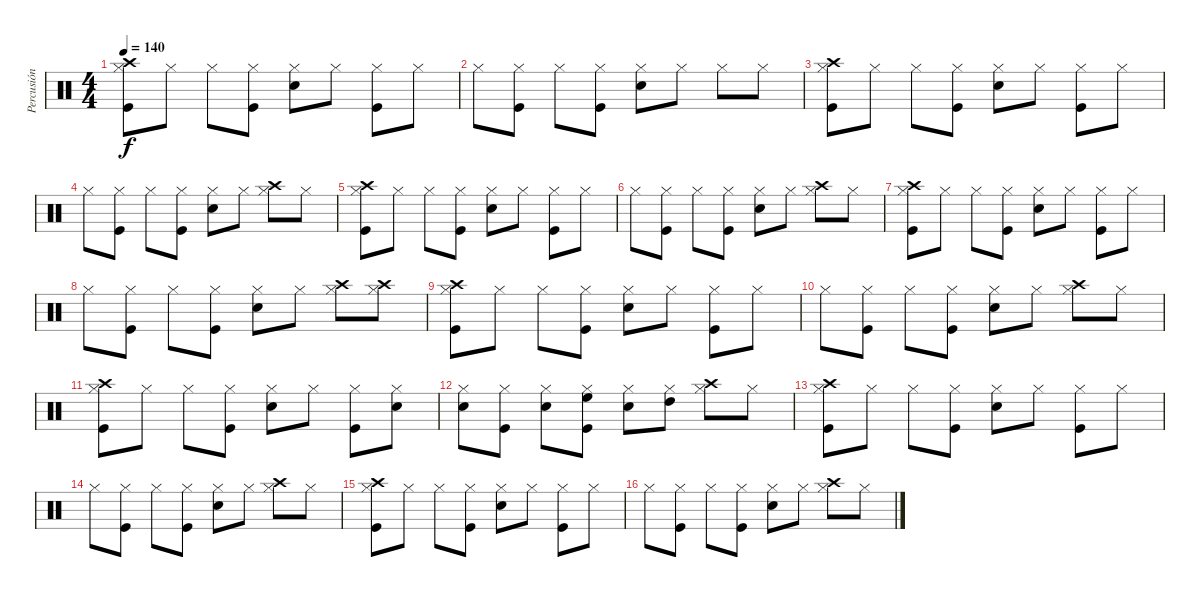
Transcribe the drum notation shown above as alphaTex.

\track ("Percusión" "Percusión") {instrument percussion}
\staff {score}
\articulation defaults
\ts (4 4)
\tempo 140
\clef neutral
\ks c
("Crash high (hit)" "Hi-Hat (closed)" "Kick (hit)").8{dy f} "Hi-Hat (closed)".8 "Hi-Hat (closed)".8 ("Hi-Hat (closed)" "Kick (hit)").8 ("Hi-Hat (closed)" "Electric Snare (hit)").8 "Hi-Hat (closed)".8 ("Hi-Hat (closed)" "Kick (hit)").8 "Hi-Hat (closed)".8 |
"Hi-Hat (closed)".8 ("Hi-Hat (closed)" "Kick (hit)").8 "Hi-Hat (closed)".8 ("Hi-Hat (closed)" "Kick (hit)").8 ("Hi-Hat (closed)" "Electric Snare (hit)").8 "Hi-Hat (closed)".8 "Hi-Hat (closed)".8 "Hi-Hat (closed)".8 |
("Crash high (hit)" "Hi-Hat (closed)" "Kick (hit)").8 "Hi-Hat (closed)".8 "Hi-Hat (closed)".8 ("Hi-Hat (closed)" "Kick (hit)").8 ("Hi-Hat (closed)" "Electric Snare (hit)").8 "Hi-Hat (closed)".8 ("Hi-Hat (closed)" "Kick (hit)").8 "Hi-Hat (closed)".8 |
"Hi-Hat (closed)".8 ("Hi-Hat (closed)" "Kick (hit)").8 "Hi-Hat (closed)".8 ("Hi-Hat (closed)" "Kick (hit)").8 ("Hi-Hat (closed)" "Electric Snare (hit)").8 "Hi-Hat (closed)".8 ("Crash high (hit)" "Hi-Hat (closed)").8 "Hi-Hat (closed)".8 |
("Crash high (hit)" "Hi-Hat (closed)" "Kick (hit)").8 "Hi-Hat (closed)".8 "Hi-Hat (closed)".8 ("Hi-Hat (closed)" "Kick (hit)").8 ("Hi-Hat (closed)" "Electric Snare (hit)").8 "Hi-Hat (closed)".8 ("Hi-Hat (closed)" "Kick (hit)").8 "Hi-Hat (closed)".8 |
"Hi-Hat (closed)".8 ("Hi-Hat (closed)" "Kick (hit)").8 "Hi-Hat (closed)".8 ("Hi-Hat (closed)" "Kick (hit)").8 ("Hi-Hat (closed)" "Electric Snare (hit)").8 "Hi-Hat (closed)".8 ("Crash high (hit)" "Hi-Hat (closed)").8 "Hi-Hat (closed)".8 |
("Crash high (hit)" "Hi-Hat (closed)" "Kick (hit)").8 "Hi-Hat (closed)".8 "Hi-Hat (closed)".8 ("Hi-Hat (closed)" "Kick (hit)").8 ("Hi-Hat (closed)" "Electric Snare (hit)").8 "Hi-Hat (closed)".8 ("Hi-Hat (closed)" "Kick (hit)").8 "Hi-Hat (closed)".8 |
"Hi-Hat (closed)".8 ("Hi-Hat (closed)" "Kick (hit)").8 "Hi-Hat (closed)".8 ("Hi-Hat (closed)" "Kick (hit)").8 ("Hi-Hat (closed)" "Electric Snare (hit)").8 "Hi-Hat (closed)".8 ("Crash high (hit)" "Hi-Hat (closed)").8 ("Crash high (hit)" "Hi-Hat (closed)").8 |
("Crash high (hit)" "Hi-Hat (closed)" "Kick (hit)").8 "Hi-Hat (closed)".8 "Hi-Hat (closed)".8 ("Hi-Hat (closed)" "Kick (hit)").8 ("Hi-Hat (closed)" "Electric Snare (hit)").8 "Hi-Hat (closed)".8 ("Hi-Hat (closed)" "Kick (hit)").8 "Hi-Hat (closed)".8 |
"Hi-Hat (closed)".8 ("Hi-Hat (closed)" "Kick (hit)").8 "Hi-Hat (closed)".8 ("Hi-Hat (closed)" "Kick (hit)").8 ("Hi-Hat (closed)" "Electric Snare (hit)").8 "Hi-Hat (closed)".8 ("Crash high (hit)" "Hi-Hat (closed)").8 "Hi-Hat (closed)".8 |
("Crash high (hit)" "Hi-Hat (closed)" "Kick (hit)").8 "Hi-Hat (closed)".8 "Hi-Hat (closed)".8 ("Hi-Hat (closed)" "Kick (hit)").8 ("Hi-Hat (closed)" "Electric Snare (hit)").8 "Hi-Hat (closed)".8 ("Hi-Hat (closed)" "Kick (hit)").8 ("Hi-Hat (closed)" "Electric Snare (hit)").8 |
("Hi-Hat (closed)" "Electric Snare (hit)").8 ("Hi-Hat (closed)" "Kick (hit)").8 ("Hi-Hat (closed)" "Electric Snare (hit)").8 ("Hi-Hat (closed)" "High Floor Tom (hit)" "Kick (hit)").8 ("Hi-Hat (closed)" "Electric Snare (hit)").8 ("Hi-Hat (closed)" "High Tom (hit)").8 ("Crash high (hit)" "Hi-Hat (closed)").8 "Hi-Hat (closed)".8 |
("Crash high (hit)" "Hi-Hat (closed)" "Kick (hit)").8 "Hi-Hat (closed)".8 "Hi-Hat (closed)".8 ("Hi-Hat (closed)" "Kick (hit)").8 ("Hi-Hat (closed)" "Electric Snare (hit)").8 "Hi-Hat (closed)".8 ("Hi-Hat (closed)" "Kick (hit)").8 "Hi-Hat (closed)".8 |
"Hi-Hat (closed)".8 ("Hi-Hat (closed)" "Kick (hit)").8 "Hi-Hat (closed)".8 ("Hi-Hat (closed)" "Kick (hit)").8 ("Hi-Hat (closed)" "Electric Snare (hit)").8 "Hi-Hat (closed)".8 ("Crash high (hit)" "Hi-Hat (closed)").8 "Hi-Hat (closed)".8 |
("Crash high (hit)" "Hi-Hat (closed)" "Kick (hit)").8 "Hi-Hat (closed)".8 "Hi-Hat (closed)".8 ("Hi-Hat (closed)" "Kick (hit)").8 ("Hi-Hat (closed)" "Electric Snare (hit)").8 "Hi-Hat (closed)".8 ("Hi-Hat (closed)" "Kick (hit)").8 "Hi-Hat (closed)".8 |
"Hi-Hat (closed)".8 ("Hi-Hat (closed)" "Kick (hit)").8 "Hi-Hat (closed)".8 ("Hi-Hat (closed)" "Kick (hit)").8 ("Hi-Hat (closed)" "Electric Snare (hit)").8 "Hi-Hat (closed)".8 ("Crash high (hit)" "Hi-Hat (closed)").8 "Hi-Hat (closed)".8
